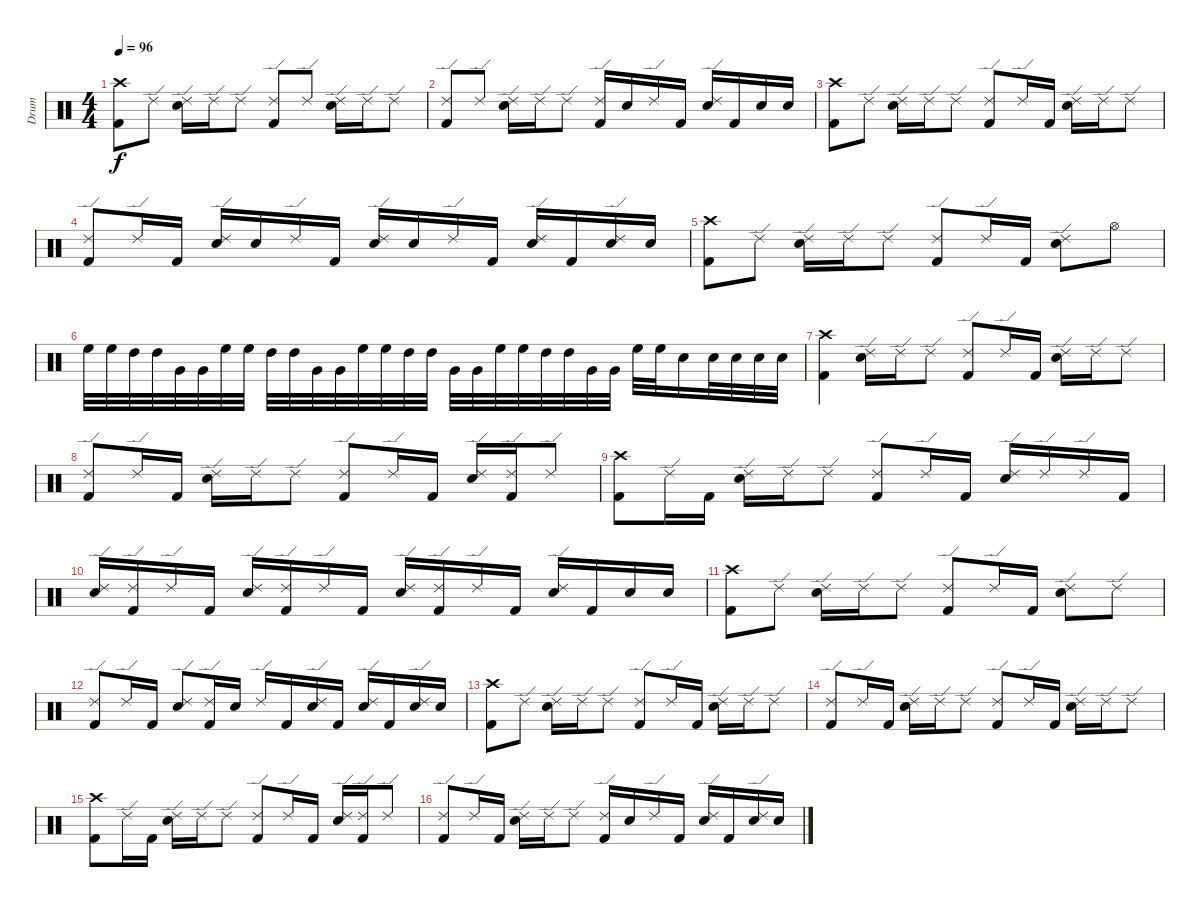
\track ("Drum" "Drum") {instrument percussion}
\staff {score}
\articulation defaults
\ts (4 4)
\tempo 96
\clef neutral
\ks c
("Crash high (hit)" "Kick (hit) 2").8{dy f} "Ride (edge) 2".8 ("Ride (edge) 2" "Electric Snare (hit)").16 "Ride (edge) 2".16 "Ride (edge) 2".8 ("Ride (edge) 2" "Kick (hit) 2").8 "Ride (edge) 2".8 ("Ride (edge) 2" "Electric Snare (hit)").16 "Ride (edge) 2".16 "Ride (edge) 2".8 |
("Ride (edge) 2" "Kick (hit) 2").8 "Ride (edge) 2".8 ("Ride (edge) 2" "Electric Snare (hit)").16 "Ride (edge) 2".16 "Ride (edge) 2".8 ("Ride (edge) 2" "Kick (hit) 2").16 "Electric Snare (hit)".16 "Ride (edge) 2".16 "Kick (hit) 2".16 ("Ride (edge) 2" "Electric Snare (hit)").16 "Kick (hit) 2".16 "Electric Snare (hit)".16 "Electric Snare (hit)".16 |
("Crash high (hit)" "Kick (hit) 2").8 "Ride (edge) 2".8 ("Ride (edge) 2" "Electric Snare (hit)").16 "Ride (edge) 2".16 "Ride (edge) 2".8 ("Ride (edge) 2" "Kick (hit) 2").8 "Ride (edge) 2".16 "Kick (hit) 2".16 ("Ride (edge) 2" "Electric Snare (hit)").16 "Ride (edge) 2".16 "Ride (edge) 2".8 |
("Ride (edge) 2" "Kick (hit) 2").8 "Ride (edge) 2".16 "Kick (hit) 2".16 ("Ride (edge) 2" "Electric Snare (hit)").16 "Electric Snare (hit)".16 "Ride (edge) 2".16 "Kick (hit) 2".16 ("Ride (edge) 2" "Electric Snare (hit)").16 "Electric Snare (hit)".16 "Ride (edge) 2".16 "Kick (hit) 2".16 ("Ride (edge) 2" "Electric Snare (hit)").16 "Kick (hit) 2".16 ("Ride (edge) 2" "Electric Snare (hit)").16 "Electric Snare (hit)".16 |
("Crash high (hit)" "Kick (hit) 2").8 "Ride (edge) 2".8 ("Ride (edge) 2" "Electric Snare (hit)").16 "Ride (edge) 2".16 "Ride (edge) 2".8 ("Ride (edge) 2" "Kick (hit) 2").8 "Ride (edge) 2".16 "Kick (hit) 2".16 ("Ride (edge) 2" "Electric Snare (hit)").8 "Hi-Hat (open)".8 |
"High Floor Tom (hit)".32 "High Floor Tom (hit)".32 "High Tom (hit)".32 "High Tom (hit)".32 "Very Low Tom (hit)".32 "Very Low Tom (hit)".32 "High Floor Tom (hit)".32 "High Floor Tom (hit)".32 "High Tom (hit)".32 "High Tom (hit)".32 "Very Low Tom (hit)".32 "Very Low Tom (hit)".32 "High Floor Tom (hit)".32 "High Floor Tom (hit)".32 "High Tom (hit)".32 "High Tom (hit)".32 "Very Low Tom (hit)".32 "Very Low Tom (hit)".32 "High Floor Tom (hit)".32 "High Floor Tom (hit)".32 "High Tom (hit)".32 "High Tom (hit)".32 "Very Low Tom (hit)".32 "Very Low Tom (hit)".32 "High Floor Tom (hit)".32 "High Floor Tom (hit)".32 "Electric Snare (hit)".16 "Electric Snare (hit)".32 "Electric Snare (hit)".32 "Electric Snare (hit)".32 "Electric Snare (hit)".32 |
("Crash high (hit)" "Kick (hit) 2").4 ("Ride (edge) 2" "Electric Snare (hit)").16 "Ride (edge) 2".16 "Ride (edge) 2".8 ("Ride (edge) 2" "Kick (hit) 2").8 "Ride (edge) 2".16 "Kick (hit) 2".16 ("Ride (edge) 2" "Electric Snare (hit)").16 "Ride (edge) 2".16 "Ride (edge) 2".8 |
("Ride (edge) 2" "Kick (hit) 2").8 "Ride (edge) 2".16 "Kick (hit) 2".16 ("Ride (edge) 2" "Electric Snare (hit)").16 "Ride (edge) 2".16 "Ride (edge) 2".8 ("Ride (edge) 2" "Kick (hit) 2").8 "Ride (edge) 2".16 "Kick (hit) 2".16 ("Ride (edge) 2" "Electric Snare (hit)").16 ("Ride (edge) 2" "Kick (hit) 2").16 "Ride (edge) 2".8 |
("Crash high (hit)" "Kick (hit) 2").8 "Ride (edge) 2".16 "Kick (hit) 2".16 ("Ride (edge) 2" "Electric Snare (hit)").16 "Ride (edge) 2".16 "Ride (edge) 2".8 ("Ride (edge) 2" "Kick (hit) 2").8 "Ride (edge) 2".16 "Kick (hit) 2".16 ("Ride (edge) 2" "Electric Snare (hit)").16 "Ride (edge) 2".16 "Ride (edge) 2".16 "Kick (hit) 2".16 |
("Ride (edge) 2" "Electric Snare (hit)").16 ("Ride (edge) 2" "Kick (hit) 2").16 "Ride (edge) 2".16 "Kick (hit) 2".16 ("Ride (edge) 2" "Electric Snare (hit)").16 ("Ride (edge) 2" "Kick (hit) 2").16 "Ride (edge) 2".16 "Kick (hit) 2".16 ("Ride (edge) 2" "Electric Snare (hit)").16 ("Ride (edge) 2" "Kick (hit) 2").16 "Ride (edge) 2".16 "Kick (hit) 2".16 ("Ride (edge) 2" "Electric Snare (hit)").16 "Kick (hit) 2".16 "Electric Snare (hit)".16 "Electric Snare (hit)".16 |
("Crash high (hit)" "Kick (hit) 2").8 "Ride (edge) 2".8 ("Ride (edge) 2" "Electric Snare (hit)").16 "Ride (edge) 2".16 "Ride (edge) 2".8 ("Ride (edge) 2" "Kick (hit) 2").8 "Ride (edge) 2".16 "Kick (hit) 2".16 ("Ride (edge) 2" "Electric Snare (hit)").8 "Ride (edge) 2".8 |
("Ride (edge) 2" "Kick (hit) 2").8 "Ride (edge) 2".16 "Kick (hit) 2".16 ("Ride (edge) 2" "Electric Snare (hit)").8 ("Ride (edge) 2" "Kick (hit) 2").16 "Electric Snare (hit)".16 "Ride (edge) 2".16 "Kick (hit) 2".16 ("Ride (edge) 2" "Electric Snare (hit)").16 "Kick (hit) 2".16 ("Ride (edge) 2" "Electric Snare (hit)").16 "Kick (hit) 2".16 ("Ride (edge) 2" "Electric Snare (hit)").16 "Electric Snare (hit)".16 |
("Crash high (hit)" "Kick (hit) 2").8 "Ride (edge) 2".8 ("Ride (edge) 2" "Electric Snare (hit)").16 "Ride (edge) 2".16 "Ride (edge) 2".8 ("Ride (edge) 2" "Kick (hit) 2").8 "Ride (edge) 2".16 "Kick (hit) 2".16 ("Ride (edge) 2" "Electric Snare (hit)").16 "Ride (edge) 2".16 "Ride (edge) 2".8 |
("Ride (edge) 2" "Kick (hit) 2").8 "Ride (edge) 2".16 "Kick (hit) 2".16 ("Ride (edge) 2" "Electric Snare (hit)").16 "Ride (edge) 2".16 "Ride (edge) 2".8 ("Ride (edge) 2" "Kick (hit) 2").8 "Ride (edge) 2".16 "Kick (hit) 2".16 ("Ride (edge) 2" "Electric Snare (hit)").16 "Ride (edge) 2".16 "Ride (edge) 2".8 |
("Crash high (hit)" "Kick (hit) 2").8 "Ride (edge) 2".16 "Kick (hit) 2".16 ("Ride (edge) 2" "Electric Snare (hit)").16 "Ride (edge) 2".16 "Ride (edge) 2".8 ("Ride (edge) 2" "Kick (hit) 2").8 "Ride (edge) 2".16 "Kick (hit) 2".16 ("Ride (edge) 2" "Electric Snare (hit)").16 ("Ride (edge) 2" "Kick (hit) 2").16 "Ride (edge) 2".8 |
("Ride (edge) 2" "Kick (hit) 2").8 "Ride (edge) 2".16 "Kick (hit) 2".16 ("Ride (edge) 2" "Electric Snare (hit)").16 "Ride (edge) 2".16 "Ride (edge) 2".8 ("Ride (edge) 2" "Kick (hit) 2").16 "Electric Snare (hit)".16 "Ride (edge) 2".16 "Kick (hit) 2".16 ("Ride (edge) 2" "Electric Snare (hit)").16 "Kick (hit) 2".16 ("Ride (edge) 2" "Electric Snare (hit)").16 "Electric Snare (hit)".16
